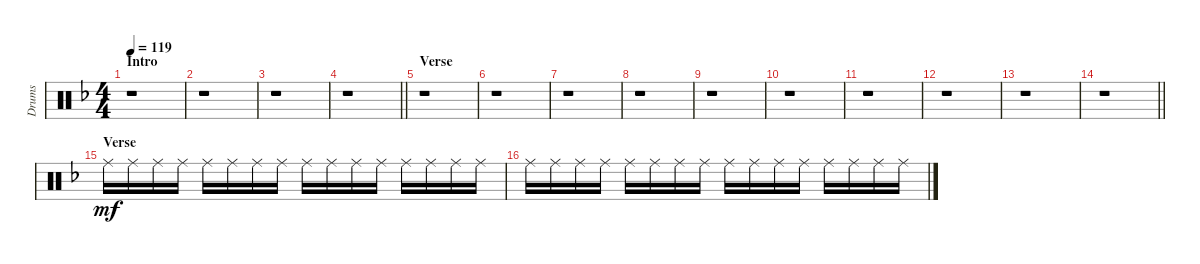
\track ("Drums" "Drums") {instrument percussion}
\staff {score}
\articulation defaults
\ts (4 4)
\section ("" "Intro")
\tempo 119
\clef neutral
\ks dminor
r.1{dy mf} |
r.1 |
r.1 |
\barLineRight lightlight
r.1 |
\section ("" "Verse")
r.1 |
r.1 |
r.1 |
r.1 |
r.1 |
r.1 |
r.1 |
r.1 |
r.1 |
\barLineRight lightlight
r.1 |
\section ("" "Verse")
"Ride (middle)".16 "Ride (middle)".16 "Ride (middle)".16 "Ride (middle)".16 "Ride (middle)".16 "Ride (middle)".16 "Ride (middle)".16 "Ride (middle)".16 "Ride (middle)".16 "Ride (middle)".16 "Ride (middle)".16 "Ride (middle)".16 "Ride (middle)".16 "Ride (middle)".16 "Ride (middle)".16 "Ride (middle)".16 |
"Ride (middle)".16 "Ride (middle)".16 "Ride (middle)".16 "Ride (middle)".16 "Ride (middle)".16 "Ride (middle)".16 "Ride (middle)".16 "Ride (middle)".16 "Ride (middle)".16 "Ride (middle)".16 "Ride (middle)".16 "Ride (middle)".16 "Ride (middle)".16 "Ride (middle)".16 "Ride (middle)".16 "Ride (middle)".16
